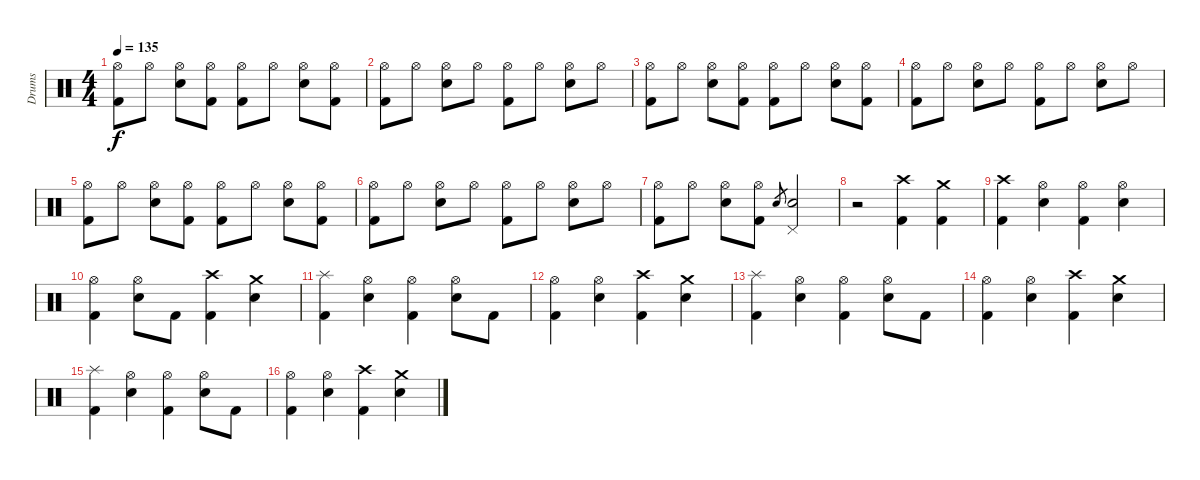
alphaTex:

\track ("Drums" "Drums") {instrument percussion}
\staff {score}
\articulation defaults
\ts (4 4)
\tempo 135
\clef neutral
\ks c
("Hi-Hat (open)" "Kick (hit) 2").8{dy f} "Hi-Hat (open)".8 ("Hi-Hat (open)" "Electric Snare (hit)").8 ("Hi-Hat (open)" "Kick (hit) 2").8 ("Hi-Hat (open)" "Kick (hit) 2").8 "Hi-Hat (open)".8 ("Hi-Hat (open)" "Electric Snare (hit)").8 ("Hi-Hat (open)" "Kick (hit) 2").8 |
("Hi-Hat (open)" "Kick (hit) 2").8 "Hi-Hat (open)".8 ("Hi-Hat (open)" "Electric Snare (hit)").8 "Hi-Hat (open)".8 ("Hi-Hat (open)" "Kick (hit) 2").8 "Hi-Hat (open)".8 ("Hi-Hat (open)" "Electric Snare (hit)").8 "Hi-Hat (open)".8 |
("Hi-Hat (open)" "Kick (hit) 2").8 "Hi-Hat (open)".8 ("Hi-Hat (open)" "Electric Snare (hit)").8 ("Hi-Hat (open)" "Kick (hit) 2").8 ("Hi-Hat (open)" "Kick (hit) 2").8 "Hi-Hat (open)".8 ("Hi-Hat (open)" "Electric Snare (hit)").8 ("Hi-Hat (open)" "Kick (hit) 2").8 |
("Hi-Hat (open)" "Kick (hit) 2").8 "Hi-Hat (open)".8 ("Hi-Hat (open)" "Electric Snare (hit)").8 "Hi-Hat (open)".8 ("Hi-Hat (open)" "Kick (hit) 2").8 "Hi-Hat (open)".8 ("Hi-Hat (open)" "Electric Snare (hit)").8 "Hi-Hat (open)".8 |
("Hi-Hat (open)" "Kick (hit) 2").8 "Hi-Hat (open)".8 ("Hi-Hat (open)" "Electric Snare (hit)").8 ("Hi-Hat (open)" "Kick (hit) 2").8 ("Hi-Hat (open)" "Kick (hit) 2").8 "Hi-Hat (open)".8 ("Hi-Hat (open)" "Electric Snare (hit)").8 ("Hi-Hat (open)" "Kick (hit) 2").8 |
("Hi-Hat (open)" "Kick (hit) 2").8 "Hi-Hat (open)".8 ("Hi-Hat (open)" "Electric Snare (hit)").8 "Hi-Hat (open)".8 ("Hi-Hat (open)" "Kick (hit) 2").8 "Hi-Hat (open)".8 ("Hi-Hat (open)" "Electric Snare (hit)").8 "Hi-Hat (open)".8 |
("Hi-Hat (open)" "Kick (hit) 2").8 "Hi-Hat (open)".8 ("Hi-Hat (open)" "Electric Snare (hit)").8 ("Hi-Hat (open)" "Kick (hit) 2").8 "Electric Snare (hit)".8{gr} ("Pedal Hi-Hat (hit)" "Electric Snare (hit)").2 |
r.2 ("Crash high (hit)" "Kick (hit) 2").4 ("Crash medium (hit)" "Kick (hit) 2").4 |
("Crash high (hit)" "Kick (hit) 2").4 ("Hi-Hat (open)" "Electric Snare (hit)").4 ("Hi-Hat (open)" "Kick (hit) 2").4 ("Hi-Hat (open)" "Electric Snare (hit)").4 |
("Hi-Hat (open)" "Kick (hit) 2").4 ("Hi-Hat (open)" "Electric Snare (hit)").8 "Kick (hit) 2".8 ("Crash high (hit)" "Kick (hit) 2").4 ("Crash medium (hit)" "Electric Snare (hit)").4 |
("Splash (hit)" "Kick (hit) 2").4 ("Hi-Hat (open)" "Electric Snare (hit)").4 ("Hi-Hat (open)" "Kick (hit) 2").4 ("Hi-Hat (open)" "Electric Snare (hit)").8 "Kick (hit) 2".8 |
("Hi-Hat (open)" "Kick (hit) 2").4 ("Hi-Hat (open)" "Electric Snare (hit)").4 ("Crash high (hit)" "Kick (hit) 2").4 ("Crash medium (hit)" "Electric Snare (hit)").4 |
("Splash (hit)" "Kick (hit) 2").4 ("Hi-Hat (open)" "Electric Snare (hit)").4 ("Hi-Hat (open)" "Kick (hit) 2").4 ("Hi-Hat (open)" "Electric Snare (hit)").8 "Kick (hit) 2".8 |
("Hi-Hat (open)" "Kick (hit) 2").4 ("Hi-Hat (open)" "Electric Snare (hit)").4 ("Crash high (hit)" "Kick (hit) 2").4 ("Crash medium (hit)" "Electric Snare (hit)").4 |
("Splash (hit)" "Kick (hit) 2").4 ("Hi-Hat (open)" "Electric Snare (hit)").4 ("Hi-Hat (open)" "Kick (hit) 2").4 ("Hi-Hat (open)" "Electric Snare (hit)").8 "Kick (hit) 2".8 |
("Hi-Hat (open)" "Kick (hit) 2").4 ("Hi-Hat (open)" "Electric Snare (hit)").4 ("Crash high (hit)" "Kick (hit) 2").4 ("Crash medium (hit)" "Electric Snare (hit)").4
